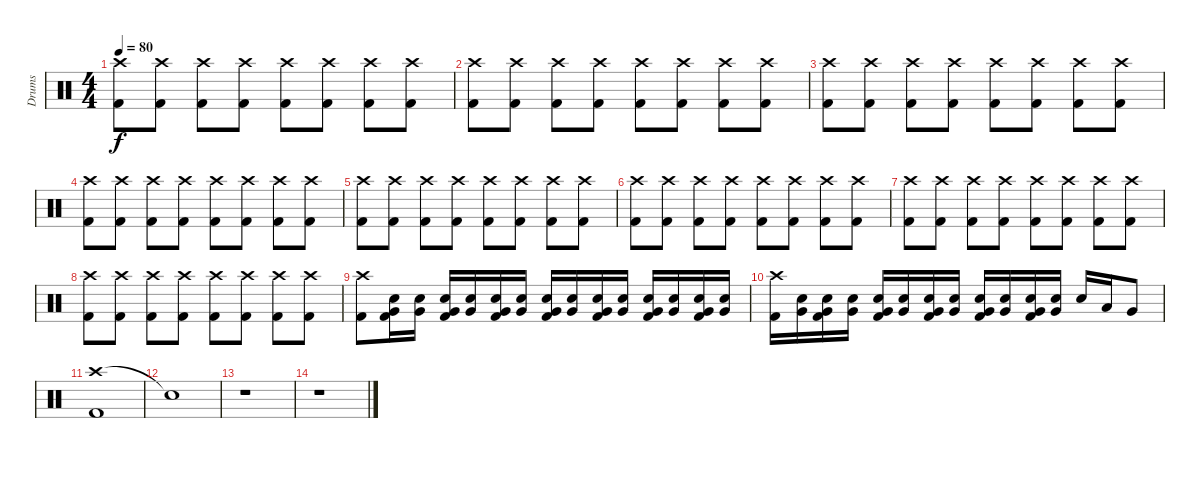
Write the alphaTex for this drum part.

\track ("Drums" "Drums") {instrument percussion}
\staff {score}
\articulation defaults
\ts (4 4)
\tempo 80
\clef neutral
\ks c
("Crash high (hit)" "Kick (hit) 2").8{dy f} ("Crash high (hit)" "Kick (hit) 2").8 ("Crash high (hit)" "Kick (hit) 2").8 ("Crash high (hit)" "Kick (hit) 2").8 ("Crash high (hit)" "Kick (hit) 2").8 ("Crash high (hit)" "Kick (hit) 2").8 ("Crash high (hit)" "Kick (hit) 2").8 ("Crash high (hit)" "Kick (hit) 2").8 |
("Crash high (hit)" "Kick (hit) 2").8 ("Crash high (hit)" "Kick (hit) 2").8 ("Crash high (hit)" "Kick (hit) 2").8 ("Crash high (hit)" "Kick (hit) 2").8 ("Crash high (hit)" "Kick (hit) 2").8 ("Crash high (hit)" "Kick (hit) 2").8 ("Crash high (hit)" "Kick (hit) 2").8 ("Crash high (hit)" "Kick (hit) 2").8 |
("Crash high (hit)" "Kick (hit) 2").8 ("Crash high (hit)" "Kick (hit) 2").8 ("Crash high (hit)" "Kick (hit) 2").8 ("Crash high (hit)" "Kick (hit) 2").8 ("Crash high (hit)" "Kick (hit) 2").8 ("Crash high (hit)" "Kick (hit) 2").8 ("Crash high (hit)" "Kick (hit) 2").8 ("Crash high (hit)" "Kick (hit) 2").8 |
("Crash high (hit)" "Kick (hit) 2").8 ("Crash high (hit)" "Kick (hit) 2").8 ("Crash high (hit)" "Kick (hit) 2").8 ("Crash high (hit)" "Kick (hit) 2").8 ("Crash high (hit)" "Kick (hit) 2").8 ("Crash high (hit)" "Kick (hit) 2").8 ("Crash high (hit)" "Kick (hit) 2").8 ("Crash high (hit)" "Kick (hit) 2").8 |
("Crash high (hit)" "Kick (hit) 2").8 ("Crash high (hit)" "Kick (hit) 2").8 ("Crash high (hit)" "Kick (hit) 2").8 ("Crash high (hit)" "Kick (hit) 2").8 ("Crash high (hit)" "Kick (hit) 2").8 ("Crash high (hit)" "Kick (hit) 2").8 ("Crash high (hit)" "Kick (hit) 2").8 ("Crash high (hit)" "Kick (hit) 2").8 |
("Crash high (hit)" "Kick (hit) 2").8 ("Crash high (hit)" "Kick (hit) 2").8 ("Crash high (hit)" "Kick (hit) 2").8 ("Crash high (hit)" "Kick (hit) 2").8 ("Crash high (hit)" "Kick (hit) 2").8 ("Crash high (hit)" "Kick (hit) 2").8 ("Crash high (hit)" "Kick (hit) 2").8 ("Crash high (hit)" "Kick (hit) 2").8 |
("Crash high (hit)" "Kick (hit) 2").8 ("Crash high (hit)" "Kick (hit) 2").8 ("Crash high (hit)" "Kick (hit) 2").8 ("Crash high (hit)" "Kick (hit) 2").8 ("Crash high (hit)" "Kick (hit) 2").8 ("Crash high (hit)" "Kick (hit) 2").8 ("Crash high (hit)" "Kick (hit) 2").8 ("Crash high (hit)" "Kick (hit) 2").8 |
("Crash high (hit)" "Kick (hit) 2").8 ("Crash high (hit)" "Kick (hit) 2").8 ("Crash high (hit)" "Kick (hit) 2").8 ("Crash high (hit)" "Kick (hit) 2").8 ("Crash high (hit)" "Kick (hit) 2").8 ("Crash high (hit)" "Kick (hit) 2").8 ("Crash high (hit)" "Kick (hit) 2").8 ("Crash high (hit)" "Kick (hit) 2").8 |
("Crash high (hit)" "Kick (hit) 2").8{volume 14} ("Snare (hit) 2" "Very Low Tom (hit)" "Kick (hit) 2").16 ("Snare (hit) 2" "Very Low Tom (hit)").16 ("Snare (hit) 2" "Very Low Tom (hit)" "Kick (hit) 2").16 ("Snare (hit) 2" "Very Low Tom (hit)").16 ("Snare (hit) 2" "Very Low Tom (hit)" "Kick (hit) 2").16 ("Snare (hit) 2" "Very Low Tom (hit)").16 ("Snare (hit) 2" "Very Low Tom (hit)" "Kick (hit) 2").16 ("Snare (hit) 2" "Very Low Tom (hit)").16 ("Snare (hit) 2" "Very Low Tom (hit)" "Kick (hit) 2").16 ("Snare (hit) 2" "Very Low Tom (hit)").16 ("Snare (hit) 2" "Very Low Tom (hit)" "Kick (hit) 2").16 ("Snare (hit) 2" "Very Low Tom (hit)").16 ("Snare (hit) 2" "Very Low Tom (hit)" "Kick (hit) 2").16 ("Snare (hit) 2" "Very Low Tom (hit)").16 |
("Crash high (hit)" "Kick (hit) 2").16{volume 16} ("Snare (hit) 2" "Very Low Tom (hit)").16 ("Snare (hit) 2" "Very Low Tom (hit)" "Kick (hit) 2").16 ("Snare (hit) 2" "Very Low Tom (hit)").16 ("Snare (hit) 2" "Very Low Tom (hit)" "Kick (hit) 2").16 ("Snare (hit) 2" "Very Low Tom (hit)").16 ("Snare (hit) 2" "Very Low Tom (hit)" "Kick (hit) 2").16 ("Snare (hit) 2" "Very Low Tom (hit)").16 ("Snare (hit) 2" "Very Low Tom (hit)" "Kick (hit) 2").16 ("Snare (hit) 2" "Very Low Tom (hit)").16 ("Snare (hit) 2" "Very Low Tom (hit)" "Kick (hit) 2").16 ("Snare (hit) 2" "Very Low Tom (hit)").16 "Snare (hit) 2".16 "Low Tom (hit)".16 "Very Low Tom (hit)".8 |
("Crash high (hit)" "Kick (hit) 2").1 |
"Snare (hit)"{t}.1 |
r.1 |
r.1
